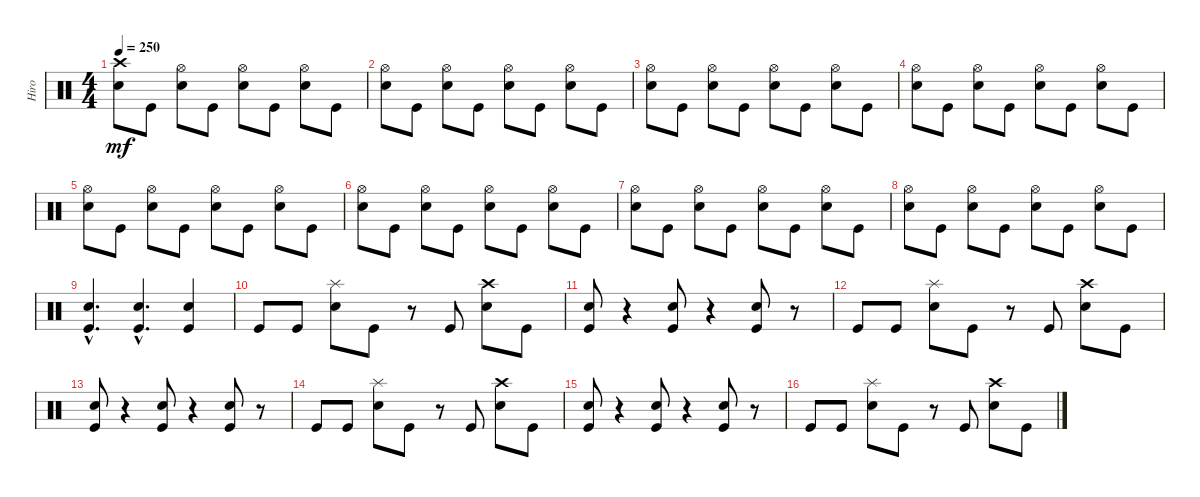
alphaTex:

\track ("Hiro" "Hiro") {instrument percussion}
\staff {score}
\articulation defaults
\ts (4 4)
\tempo 250
\clef neutral
\ks c
("Crash high (hit)" "Electric Snare (hit)").8{dy mf} "Kick (hit)".8 ("Hi-Hat (open)" "Electric Snare (hit)").8 "Kick (hit)".8 ("Hi-Hat (open)" "Electric Snare (hit)").8 "Kick (hit)".8 ("Hi-Hat (open)" "Electric Snare (hit)").8 "Kick (hit)".8 |
("Hi-Hat (open)" "Electric Snare (hit)").8 "Kick (hit)".8 ("Hi-Hat (open)" "Electric Snare (hit)").8 "Kick (hit)".8 ("Hi-Hat (open)" "Electric Snare (hit)").8 "Kick (hit)".8 ("Hi-Hat (open)" "Electric Snare (hit)").8 "Kick (hit)".8 |
("Electric Snare (hit)" "Hi-Hat (open)").8 "Kick (hit)".8 ("Electric Snare (hit)" "Hi-Hat (open)").8 "Kick (hit)".8 ("Electric Snare (hit)" "Hi-Hat (open)").8 "Kick (hit)".8 ("Electric Snare (hit)" "Hi-Hat (open)").8 "Kick (hit)".8 |
("Electric Snare (hit)" "Hi-Hat (open)").8 "Kick (hit)".8 ("Electric Snare (hit)" "Hi-Hat (open)").8 "Kick (hit)".8 ("Electric Snare (hit)" "Hi-Hat (open)").8 "Kick (hit)".8 ("Electric Snare (hit)" "Hi-Hat (open)").8 "Kick (hit)".8 |
("Electric Snare (hit)" "Hi-Hat (open)").8 "Kick (hit)".8 ("Electric Snare (hit)" "Hi-Hat (open)").8 "Kick (hit)".8 ("Electric Snare (hit)" "Hi-Hat (open)").8 "Kick (hit)".8 ("Electric Snare (hit)" "Hi-Hat (open)").8 "Kick (hit)".8 |
("Hi-Hat (open)" "Electric Snare (hit)").8 "Kick (hit)".8 ("Hi-Hat (open)" "Electric Snare (hit)").8 "Kick (hit)".8 ("Hi-Hat (open)" "Electric Snare (hit)").8 "Kick (hit)".8 ("Hi-Hat (open)" "Electric Snare (hit)").8 "Kick (hit)".8 |
("Hi-Hat (open)" "Electric Snare (hit)").8 "Kick (hit)".8 ("Hi-Hat (open)" "Electric Snare (hit)").8 "Kick (hit)".8 ("Hi-Hat (open)" "Electric Snare (hit)").8 "Kick (hit)".8 ("Hi-Hat (open)" "Electric Snare (hit)").8 "Kick (hit)".8 |
("Electric Snare (hit)" "Hi-Hat (open)").8 "Kick (hit)".8 ("Electric Snare (hit)" "Hi-Hat (open)").8 "Kick (hit)".8 ("Electric Snare (hit)" "Hi-Hat (open)").8 "Kick (hit)".8 ("Electric Snare (hit)" "Hi-Hat (open)").8 "Kick (hit)".8 |
("Electric Snare (hit)"{hac} "Kick (hit)").4{d} ("Electric Snare (hit)"{hac} "Kick (hit)").4{d} ("Electric Snare (hit)" "Kick (hit)").4 |
"Kick (hit)".8 "Kick (hit)".8 ("Electric Snare (hit)" "Splash (hit)").8 "Kick (hit)".8 r.8 "Kick (hit)".8 ("Electric Snare (hit)" "Crash high (hit)").8 "Kick (hit)".8 |
("Electric Snare (hit)" "Kick (hit)").8 r.4 ("Electric Snare (hit)" "Kick (hit)").8 r.4 ("Electric Snare (hit)" "Kick (hit)").8 r.8 |
"Kick (hit)".8 "Kick (hit)".8 ("Splash (hit)" "Electric Snare (hit)").8 "Kick (hit)".8 r.8 "Kick (hit)".8 ("Crash high (hit)" "Electric Snare (hit)").8 "Kick (hit)".8 |
("Kick (hit)" "Electric Snare (hit)").8 r.4 ("Kick (hit)" "Electric Snare (hit)").8 r.4 ("Kick (hit)" "Electric Snare (hit)").8 r.8 |
"Kick (hit)".8 "Kick (hit)".8 ("Splash (hit)" "Electric Snare (hit)").8 "Kick (hit)".8 r.8 "Kick (hit)".8 ("Crash high (hit)" "Electric Snare (hit)").8 "Kick (hit)".8 |
("Kick (hit)" "Electric Snare (hit)").8 r.4 ("Kick (hit)" "Electric Snare (hit)").8 r.4 ("Kick (hit)" "Electric Snare (hit)").8 r.8 |
"Kick (hit)".8 "Kick (hit)".8 ("Splash (hit)" "Electric Snare (hit)").8 "Kick (hit)".8 r.8 "Kick (hit)".8 ("Crash high (hit)" "Electric Snare (hit)").8 "Kick (hit)".8
